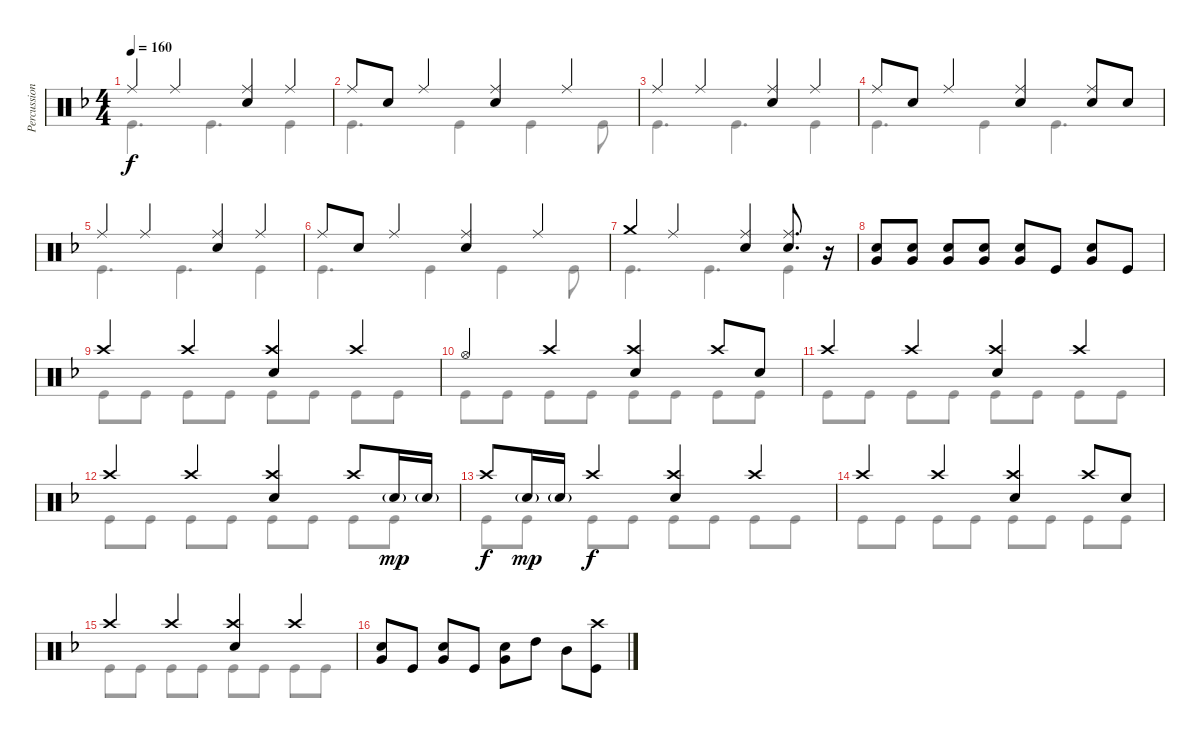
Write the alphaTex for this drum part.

\track ("Percussion" "Percussion") {instrument percussion}
\staff {score}
\articulation defaults
\voice
\ts (4 4)
\tempo 160
\clef neutral
\ks dminor "Ride (middle)".4{dy f} "Ride (middle)".4
("Ride (middle)" "Snare (hit) 2").4 "Ride (middle)".4 |
"Ride (middle)".8 "Snare (hit) 2".8 "Ride (middle)".4 ("Ride (middle)" "Snare (hit) 2").4 "Ride (middle)".4 |
"Ride (middle)".4 "Ride (middle)".4 ("Ride (middle)" "Snare (hit) 2").4 "Ride (middle)".4 |
"Ride (middle)".8 "Snare (hit) 2".8 "Ride (middle)".4 ("Ride (middle)" "Snare (hit) 2").4 ("Ride (middle)" "Snare (hit) 2").8 "Snare (hit) 2".8 |
"Ride (middle)".4 "Ride (middle)".4 ("Ride (middle)" "Snare (hit) 2").4 "Ride (middle)".4 |
"Ride (middle)".8 "Snare (hit) 2".8 "Ride (middle)".4 ("Ride (middle)" "Snare (hit) 2").4 "Ride (middle)".4 |
"Crash medium (hit)".4 "Ride (middle)".4 ("Ride (middle)" "Snare (hit) 2").4 ("Ride (middle)" "Snare (hit) 2").8{d} r.16{volume 7} |
("Very Low Tom (hit)" "Snare (hit) 2").8{volume 13} ("Very Low Tom (hit)" "Snare (hit) 2").8 ("Very Low Tom (hit)" "Snare (hit) 2").8 ("Very Low Tom (hit)" "Snare (hit) 2").8 ("Very Low Tom (hit)" "Snare (hit) 2").8 "Kick (hit)".8 ("Very Low Tom (hit)" "Snare (hit) 2").8 "Kick (hit)".8 |
"Crash high (hit)".4 "Crash high (hit)".4 ("Crash high (hit)" "Snare (hit) 2").4 "Crash high (hit)".4 |
"Hi-Hat (open)".4 "Crash high (hit)".4 ("Crash high (hit)" "Snare (hit) 2").4 "Crash high (hit)".8 "Snare (hit) 2".8 |
"Crash high (hit)".4 "Crash high (hit)".4 ("Crash high (hit)" "Snare (hit) 2").4 "Crash high (hit)".4 |
"Crash high (hit)".4 "Crash high (hit)".4 ("Crash high (hit)" "Snare (hit) 2").4 "Crash high (hit)".8 "Snare (hit) 2"{g}.16{dy mp} "Snare (hit) 2"{g}.16 |
"Crash high (hit)".8{dy f} "Snare (hit) 2"{g}.16{dy mp} "Snare (hit) 2"{g}.16 "Crash high (hit)".4{dy f} ("Crash high (hit)" "Snare (hit) 2").4 "Crash high (hit)".4 |
"Crash high (hit)".4 "Crash high (hit)".4 ("Crash high (hit)" "Snare (hit) 2").4 "Crash high (hit)".8 "Snare (hit) 2".8 |
"Crash high (hit)".4 "Crash high (hit)".4 ("Crash high (hit)" "Snare (hit) 2").4 "Crash high (hit)".4 |
("Very Low Tom (hit)" "Snare (hit) 2").8 "Kick (hit)".8 ("Very Low Tom (hit)" "Snare (hit) 2").8 "Kick (hit)".8 ("Very Low Tom (hit)" "Snare (hit) 2").8 "High Tom (hit)".8 "Mid Tom (hit)".8 ("Crash high (hit)" "Kick (hit)").8
\voice
\clef neutral
\ottava regular
\simile none
\ks dminor "Kick (hit)".4{d dy f} "Kick (hit)".4{d} "Kick (hit)".4
|
"Kick (hit)".4{d} "Kick (hit)".4 "Kick (hit)".4 "Kick (hit)".8 |
"Kick (hit)".4{d} "Kick (hit)".4{d} "Kick (hit)".4 |
"Kick (hit)".4{d} "Kick (hit)".4 "Kick (hit)".4{d} |
"Kick (hit)".4{d} "Kick (hit)".4{d} "Kick (hit)".4 |
"Kick (hit)".4{d} "Kick (hit)".4 "Kick (hit)".4 "Kick (hit)".8 |
"Kick (hit)".4{d} "Kick (hit)".4{d} "Kick (hit)".4 |
|
"Kick (hit)".8 "Kick (hit)".8 "Kick (hit)".8 "Kick (hit)".8 "Kick (hit)".8 "Kick (hit)".8 "Kick (hit)".8 "Kick (hit)".8 |
"Kick (hit)".8 "Kick (hit)".8 "Kick (hit)".8 "Kick (hit)".8 "Kick (hit)".8 "Kick (hit)".8 "Kick (hit)".8 "Kick (hit)".8 |
"Kick (hit)".8 "Kick (hit)".8 "Kick (hit)".8 "Kick (hit)".8 "Kick (hit)".8 "Kick (hit)".8 "Kick (hit)".8 "Kick (hit)".8 |
"Kick (hit)".8 "Kick (hit)".8 "Kick (hit)".8 "Kick (hit)".8 "Kick (hit)".8 "Kick (hit)".8 "Kick (hit)".8 "Kick (hit)".8 |
"Kick (hit)".8 "Kick (hit)".8 "Kick (hit)".8 "Kick (hit)".8 "Kick (hit)".8 "Kick (hit)".8 "Kick (hit)".8 "Kick (hit)".8 |
"Kick (hit)".8 "Kick (hit)".8 "Kick (hit)".8 "Kick (hit)".8 "Kick (hit)".8 "Kick (hit)".8 "Kick (hit)".8 "Kick (hit)".8 |
"Kick (hit)".8 "Kick (hit)".8 "Kick (hit)".8 "Kick (hit)".8 "Kick (hit)".8 "Kick (hit)".8 "Kick (hit)".8 "Kick (hit)".8 |
